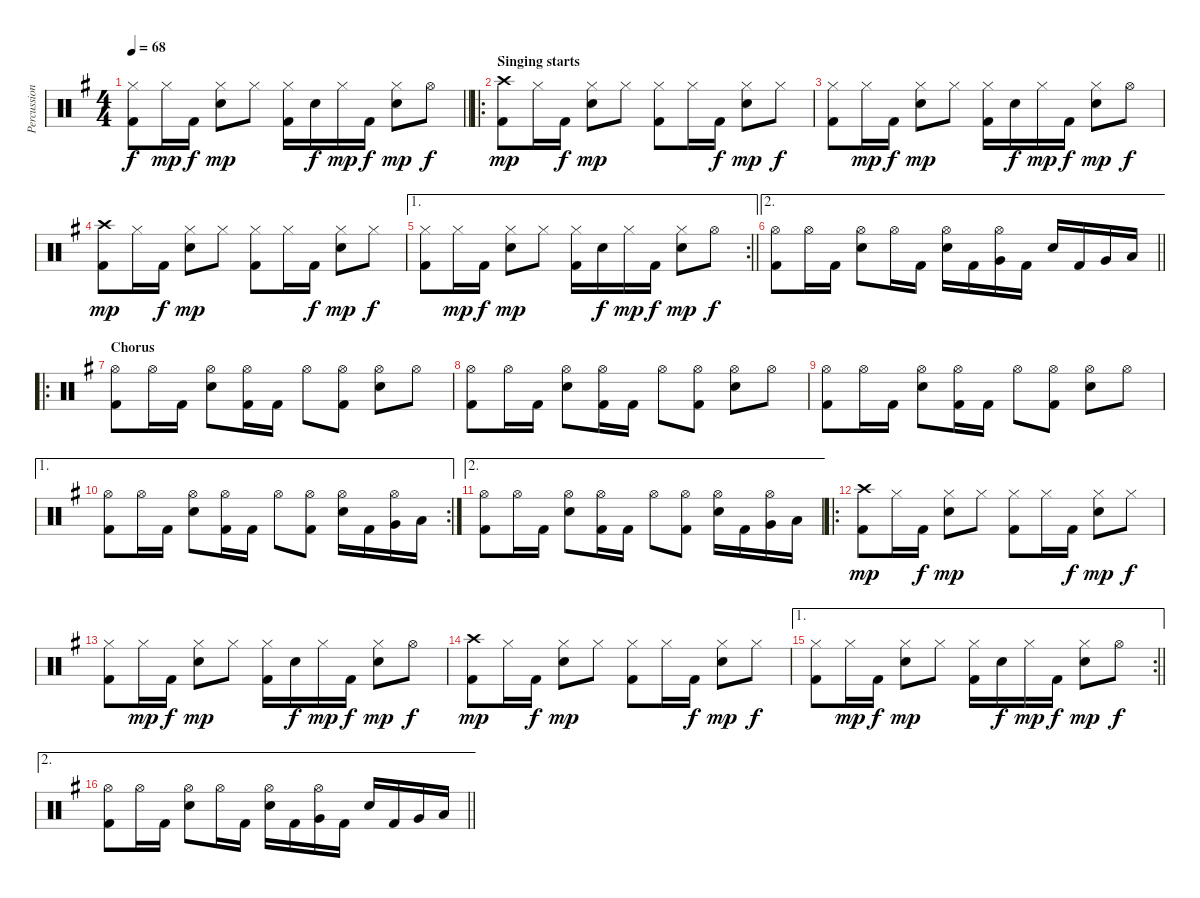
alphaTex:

\track ("Percussion" "Percussion") {instrument percussion}
\staff {score}
\articulation defaults
\ts (4 4)
\tempo 68
\clef neutral
\barLineRight lightlight
\ks eminor
("Hi-Hat (closed)" "Kick (hit) 2").8{dy f} "Hi-Hat (closed)".16{dy mp} "Kick (hit) 2".16{dy f} ("Hi-Hat (closed)" "Snare (hit) 2").8{dy mp} "Hi-Hat (closed)".8 ("Hi-Hat (closed)" "Kick (hit) 2").16 "Snare (hit) 2".16{dy f} "Hi-Hat (closed)".16{dy mp} "Kick (hit) 2".16{dy f} ("Hi-Hat (closed)" "Snare (hit) 2").8{dy mp} "Hi-Hat (open)".8{dy f} |
\ro
\section ("" "Singing starts")
("Crash high (hit)" "Kick (hit) 2").8{dy mp} "Hi-Hat (closed)".16 "Kick (hit) 2".16{dy f} ("Hi-Hat (closed)" "Snare (hit) 2").8{dy mp} "Hi-Hat (closed)".8 ("Hi-Hat (closed)" "Kick (hit) 2").8 "Hi-Hat (closed)".16 "Kick (hit) 2".16{dy f} ("Hi-Hat (closed)" "Snare (hit) 2").8{dy mp} "Hi-Hat (closed)".8{dy f} |
("Hi-Hat (closed)" "Kick (hit) 2").8 "Hi-Hat (closed)".16{dy mp} "Kick (hit) 2".16{dy f} ("Hi-Hat (closed)" "Snare (hit) 2").8{dy mp} "Hi-Hat (closed)".8 ("Hi-Hat (closed)" "Kick (hit) 2").16 "Snare (hit) 2".16{dy f} "Hi-Hat (closed)".16{dy mp} "Kick (hit) 2".16{dy f} ("Hi-Hat (closed)" "Snare (hit) 2").8{dy mp} "Hi-Hat (open)".8{dy f} |
("Crash high (hit)" "Kick (hit) 2").8{dy mp} "Hi-Hat (closed)".16 "Kick (hit) 2".16{dy f} ("Hi-Hat (closed)" "Snare (hit) 2").8{dy mp} "Hi-Hat (closed)".8 ("Hi-Hat (closed)" "Kick (hit) 2").8 "Hi-Hat (closed)".16 "Kick (hit) 2".16{dy f} ("Hi-Hat (closed)" "Snare (hit) 2").8{dy mp} "Hi-Hat (closed)".8{dy f} |
\ae 1
\rc 2
\barLineRight lightlight
("Hi-Hat (closed)" "Kick (hit) 2").8 "Hi-Hat (closed)".16{dy mp} "Kick (hit) 2".16{dy f} ("Hi-Hat (closed)" "Snare (hit) 2").8{dy mp} "Hi-Hat (closed)".8 ("Hi-Hat (closed)" "Kick (hit) 2").16 "Snare (hit) 2".16{dy f} "Hi-Hat (closed)".16{dy mp} "Kick (hit) 2".16{dy f} ("Hi-Hat (closed)" "Snare (hit) 2").8{dy mp} "Hi-Hat (open)".8{dy f} |
\ae 2
\barLineRight lightlight
("Hi-Hat (open)" "Kick (hit) 2").8 "Hi-Hat (open)".16 "Kick (hit) 2".16 ("Hi-Hat (open)" "Snare (hit) 2").8 "Hi-Hat (open)".16 "Kick (hit) 2".16 ("Hi-Hat (open)" "Snare (hit) 2").16 "Kick (hit) 2".16 ("Hi-Hat (open)" "Very Low Tom (hit)").16 "Kick (hit) 2".16 "Snare (hit) 2".16 "Kick (hit) 2".16 "Very Low Tom (hit)".16 "Low Floor Tom (hit)".16 |
\ro
\section ("" "Chorus")
("Hi-Hat (open)" "Kick (hit) 2").8 "Hi-Hat (open)".16 "Kick (hit) 2".16 ("Hi-Hat (open)" "Snare (hit) 2").8 ("Hi-Hat (open)" "Kick (hit) 2").16 "Kick (hit) 2".16 "Hi-Hat (open)".8 ("Hi-Hat (open)" "Kick (hit) 2").8 ("Hi-Hat (open)" "Snare (hit) 2").8 "Hi-Hat (open)".8 |
("Hi-Hat (open)" "Kick (hit) 2").8 "Hi-Hat (open)".16 "Kick (hit) 2".16 ("Hi-Hat (open)" "Snare (hit) 2").8 ("Hi-Hat (open)" "Kick (hit) 2").16 "Kick (hit) 2".16 "Hi-Hat (open)".8 ("Hi-Hat (open)" "Kick (hit) 2").8 ("Hi-Hat (open)" "Snare (hit) 2").8 "Hi-Hat (open)".8 |
("Hi-Hat (open)" "Kick (hit) 2").8 "Hi-Hat (open)".16 "Kick (hit) 2".16 ("Hi-Hat (open)" "Snare (hit) 2").8 ("Hi-Hat (open)" "Kick (hit) 2").16 "Kick (hit) 2".16 "Hi-Hat (open)".8 ("Hi-Hat (open)" "Kick (hit) 2").8 ("Hi-Hat (open)" "Snare (hit) 2").8 "Hi-Hat (open)".8 |
\ae 1
\rc 2
("Hi-Hat (open)" "Kick (hit) 2").8 "Hi-Hat (open)".16 "Kick (hit) 2".16 ("Hi-Hat (open)" "Snare (hit) 2").8 ("Hi-Hat (open)" "Kick (hit) 2").16 "Kick (hit) 2".16 "Hi-Hat (open)".8 ("Hi-Hat (open)" "Kick (hit) 2").8 ("Hi-Hat (open)" "Snare (hit) 2").16 "Kick (hit) 2".16 ("Hi-Hat (open)" "Very Low Tom (hit)").16 "Low Floor Tom (hit)".16 |
\ae 2
("Hi-Hat (open)" "Kick (hit) 2").8 "Hi-Hat (open)".16 "Kick (hit) 2".16 ("Hi-Hat (open)" "Snare (hit) 2").8 ("Hi-Hat (open)" "Kick (hit) 2").16 "Kick (hit) 2".16 "Hi-Hat (open)".8 ("Hi-Hat (open)" "Kick (hit) 2").8 ("Hi-Hat (open)" "Snare (hit) 2").16 "Kick (hit) 2".16 ("Hi-Hat (open)" "Very Low Tom (hit)").16 "Low Floor Tom (hit)".16 |
\ro
("Crash high (hit)" "Kick (hit) 2").8{dy mp} "Hi-Hat (closed)".16 "Kick (hit) 2".16{dy f} ("Hi-Hat (closed)" "Snare (hit) 2").8{dy mp} "Hi-Hat (closed)".8 ("Hi-Hat (closed)" "Kick (hit) 2").8 "Hi-Hat (closed)".16 "Kick (hit) 2".16{dy f} ("Hi-Hat (closed)" "Snare (hit) 2").8{dy mp} "Hi-Hat (closed)".8{dy f} |
("Hi-Hat (closed)" "Kick (hit) 2").8 "Hi-Hat (closed)".16{dy mp} "Kick (hit) 2".16{dy f} ("Hi-Hat (closed)" "Snare (hit) 2").8{dy mp} "Hi-Hat (closed)".8 ("Hi-Hat (closed)" "Kick (hit) 2").16 "Snare (hit) 2".16{dy f} "Hi-Hat (closed)".16{dy mp} "Kick (hit) 2".16{dy f} ("Hi-Hat (closed)" "Snare (hit) 2").8{dy mp} "Hi-Hat (open)".8{dy f} |
("Crash high (hit)" "Kick (hit) 2").8{dy mp} "Hi-Hat (closed)".16 "Kick (hit) 2".16{dy f} ("Hi-Hat (closed)" "Snare (hit) 2").8{dy mp} "Hi-Hat (closed)".8 ("Hi-Hat (closed)" "Kick (hit) 2").8 "Hi-Hat (closed)".16 "Kick (hit) 2".16{dy f} ("Hi-Hat (closed)" "Snare (hit) 2").8{dy mp} "Hi-Hat (closed)".8{dy f} |
\ae 1
\rc 2
\barLineRight lightlight
("Hi-Hat (closed)" "Kick (hit) 2").8 "Hi-Hat (closed)".16{dy mp} "Kick (hit) 2".16{dy f} ("Hi-Hat (closed)" "Snare (hit) 2").8{dy mp} "Hi-Hat (closed)".8 ("Hi-Hat (closed)" "Kick (hit) 2").16 "Snare (hit) 2".16{dy f} "Hi-Hat (closed)".16{dy mp} "Kick (hit) 2".16{dy f} ("Hi-Hat (closed)" "Snare (hit) 2").8{dy mp} "Hi-Hat (open)".8{dy f} |
\ae 2
\barLineRight lightlight
("Hi-Hat (open)" "Kick (hit) 2").8 "Hi-Hat (open)".16 "Kick (hit) 2".16 ("Hi-Hat (open)" "Snare (hit) 2").8 "Hi-Hat (open)".16 "Kick (hit) 2".16 ("Hi-Hat (open)" "Snare (hit) 2").16 "Kick (hit) 2".16 ("Hi-Hat (open)" "Very Low Tom (hit)").16 "Kick (hit) 2".16 "Snare (hit) 2".16 "Kick (hit) 2".16 "Very Low Tom (hit)".16 "Low Floor Tom (hit)".16
